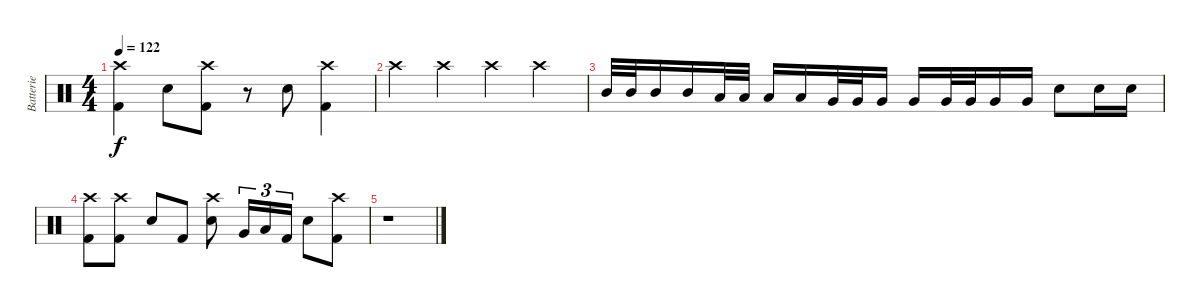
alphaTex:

\track ("Batterie" "Batterie") {instrument percussion}
\staff {score}
\articulation defaults
\ts (4 4)
\tempo 122
\clef neutral
\ks c
("Crash high (hit)" "Kick (hit) 2").4{dy f} "Snare (hit) 2".8 ("Crash high (hit)" "Kick (hit) 2").8 r.8 "Snare (hit) 2".8 ("Crash high (hit)" "Kick (hit) 2").4 |
"Crash high (hit)".4 "Crash high (hit)".4 "Crash high (hit)".4 "Crash high (hit)".4 |
"Mid Tom (hit)".32 "Mid Tom (hit)".32 "Mid Tom (hit)".16 "Mid Tom (hit)".16 "Low Tom (hit)".32 "Low Tom (hit)".32 "Low Tom (hit)".16 "Low Tom (hit)".16 "Very Low Tom (hit)".32 "Very Low Tom (hit)".32 "Very Low Tom (hit)".16 "Very Low Tom (hit)".16 "Very Low Tom (hit)".32 "Very Low Tom (hit)".32 "Very Low Tom (hit)".16 "Very Low Tom (hit)".16 "Snare (hit) 2".8 "Snare (hit) 2".16 "Snare (hit) 2".16 |
("Crash high (hit)" "Kick (hit) 2").8 ("Crash high (hit)" "Kick (hit) 2").8 "Snare (hit) 2".8 "Kick (hit) 2".8 ("Crash high (hit)" "Snare (hit) 2").8 "Very Low Tom (hit)".16{tu (3 2)} "Low Tom (hit)".16{tu (3 2)} "Kick (hit) 2".16{tu (3 2)} "Snare (hit) 2".8 ("Crash high (hit)" "Kick (hit) 2").8 |
r.1
